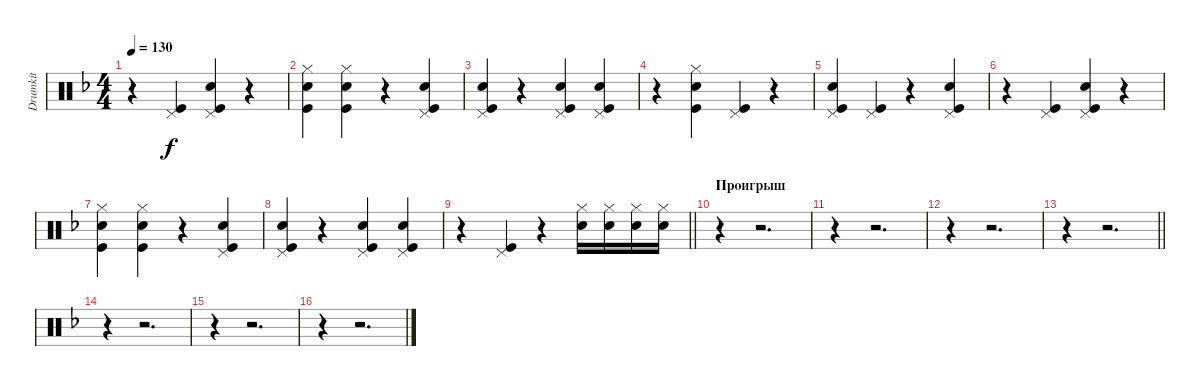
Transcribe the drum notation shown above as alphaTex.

\track ("Drumkit" "Drumkit") {instrument percussion}
\staff {score}
\articulation defaults
\ts (4 4)
\tempo 130
\clef neutral
\ks f
r.4{dy f} ("Kick (hit)" "Pedal Hi-Hat (hit)").4 ("Kick (hit)" "Snare (hit) 2" "Pedal Hi-Hat (hit)").4 r.4 |
("Kick (hit)" "Snare (hit) 2" "Hi-Hat (closed)").4 ("Kick (hit)" "Snare (hit) 2" "Hi-Hat (closed)").4 r.4 ("Kick (hit)" "Snare (hit) 2" "Pedal Hi-Hat (hit)").4 |
("Kick (hit)" "Snare (hit) 2" "Pedal Hi-Hat (hit)").4 r.4 ("Kick (hit)" "Snare (hit) 2" "Pedal Hi-Hat (hit)").4 ("Kick (hit)" "Snare (hit) 2" "Pedal Hi-Hat (hit)").4 |
r.4 ("Kick (hit)" "Snare (hit) 2" "Hi-Hat (closed)").4 ("Kick (hit)" "Pedal Hi-Hat (hit)").4 r.4 |
("Kick (hit)" "Snare (hit) 2" "Pedal Hi-Hat (hit)").4 ("Kick (hit)" "Pedal Hi-Hat (hit)").4 r.4 ("Kick (hit)" "Snare (hit) 2" "Pedal Hi-Hat (hit)").4 |
r.4 ("Kick (hit)" "Pedal Hi-Hat (hit)").4 ("Kick (hit)" "Snare (hit) 2" "Pedal Hi-Hat (hit)").4 r.4 |
("Kick (hit)" "Snare (hit) 2" "Hi-Hat (closed)").4 ("Kick (hit)" "Snare (hit) 2" "Hi-Hat (closed)").4 r.4 ("Kick (hit)" "Snare (hit) 2" "Pedal Hi-Hat (hit)").4 |
("Kick (hit)" "Snare (hit) 2" "Pedal Hi-Hat (hit)").4 r.4 ("Kick (hit)" "Snare (hit) 2" "Pedal Hi-Hat (hit)").4 ("Kick (hit)" "Snare (hit) 2" "Pedal Hi-Hat (hit)").4 |
\barLineRight lightlight
r.4 ("Kick (hit)" "Pedal Hi-Hat (hit)").4 r.4 ("Snare (hit) 2" "Hi-Hat (closed)").16 ("Snare (hit) 2" "Hi-Hat (closed)").16 ("Snare (hit) 2" "Hi-Hat (closed)").16 ("Snare (hit) 2" "Hi-Hat (closed)").16 |
\section ("" "Проигрыш")
r.4 r.2{d} |
r.4 r.2{d} |
r.4 r.2{d} |
\barLineRight lightlight
r.4 r.2{d} |
r.4 r.2{d} |
r.4 r.2{d} |
r.4 r.2{d}
